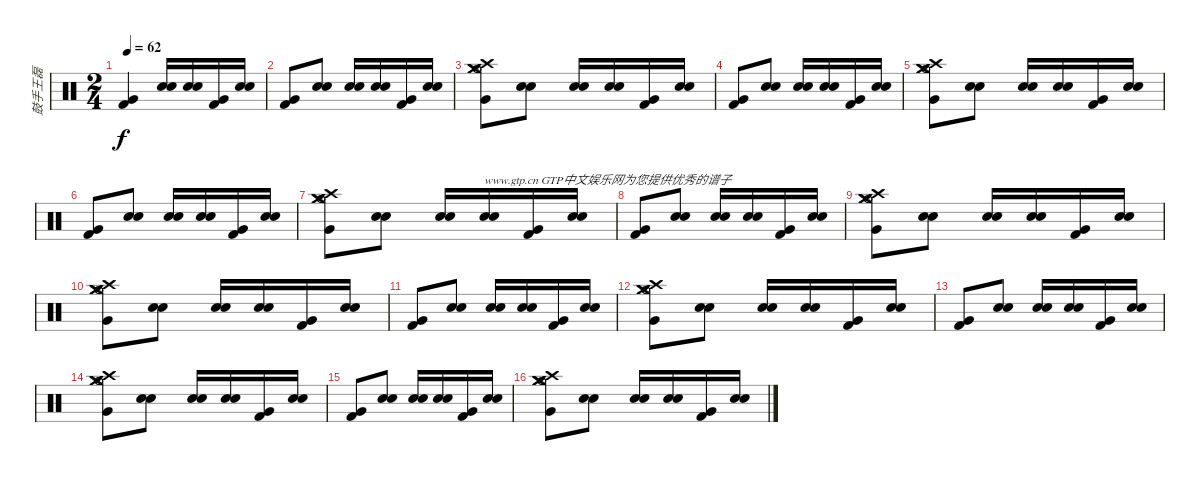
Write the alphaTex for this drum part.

\track ("鼓手王磊" "鼓手王磊") {instrument percussion}
\staff {score}
\articulation defaults
\ts (2 4)
\tempo 62
\clef neutral
\ks c
("Very Low Tom (hit)" "Kick (hit) 2").4{dy f} ("Electric Snare (hit)" "Electric Snare (hit)").16 ("Electric Snare (hit)" "Electric Snare (hit)").16 ("Very Low Tom (hit)" "Kick (hit) 2").16 ("Electric Snare (hit)" "Electric Snare (hit)").16 |
("Very Low Tom (hit)" "Kick (hit) 2").8 ("Electric Snare (hit)" "Electric Snare (hit)").8 ("Electric Snare (hit)" "Electric Snare (hit)").16 ("Electric Snare (hit)" "Electric Snare (hit)").16 ("Very Low Tom (hit)" "Kick (hit) 2").16 ("Electric Snare (hit)" "Electric Snare (hit)").16 |
("Crash medium (hit)" "Crash medium (hit)" "Very Low Tom (hit)" "Crash high (hit)" "Hi-Hat (open)" "Hi-Hat (open)").8 ("Electric Snare (hit)" "Electric Snare (hit)").8 ("Electric Snare (hit)" "Electric Snare (hit)").16 ("Electric Snare (hit)" "Electric Snare (hit)").16 ("Very Low Tom (hit)" "Kick (hit) 2").16 ("Electric Snare (hit)" "Electric Snare (hit)").16 |
("Very Low Tom (hit)" "Kick (hit) 2").8 ("Electric Snare (hit)" "Electric Snare (hit)").8 ("Electric Snare (hit)" "Electric Snare (hit)").16 ("Electric Snare (hit)" "Electric Snare (hit)").16 ("Very Low Tom (hit)" "Kick (hit) 2").16 ("Electric Snare (hit)" "Electric Snare (hit)").16 |
("Crash medium (hit)" "Crash medium (hit)" "Very Low Tom (hit)" "Crash high (hit)" "Hi-Hat (open)" "Hi-Hat (open)").8 ("Electric Snare (hit)" "Electric Snare (hit)").8 ("Electric Snare (hit)" "Electric Snare (hit)").16 ("Electric Snare (hit)" "Electric Snare (hit)").16 ("Very Low Tom (hit)" "Kick (hit) 2").16 ("Electric Snare (hit)" "Electric Snare (hit)").16 |
("Very Low Tom (hit)" "Kick (hit) 2").8 ("Electric Snare (hit)" "Electric Snare (hit)").8 ("Electric Snare (hit)" "Electric Snare (hit)").16 ("Electric Snare (hit)" "Electric Snare (hit)").16 ("Very Low Tom (hit)" "Kick (hit) 2").16 ("Electric Snare (hit)" "Electric Snare (hit)").16 |
("Crash medium (hit)" "Crash medium (hit)" "Very Low Tom (hit)" "Crash high (hit)" "Hi-Hat (open)" "Hi-Hat (open)").8 ("Electric Snare (hit)" "Electric Snare (hit)").8 ("Electric Snare (hit)" "Electric Snare (hit)").16 ("Electric Snare (hit)" "Electric Snare (hit)").16{txt "www.gtp.cn GTP中文娱乐网为您提供优秀的谱子"} ("Very Low Tom (hit)" "Kick (hit) 2").16 ("Electric Snare (hit)" "Electric Snare (hit)").16 |
("Very Low Tom (hit)" "Kick (hit) 2").8 ("Electric Snare (hit)" "Electric Snare (hit)").8 ("Electric Snare (hit)" "Electric Snare (hit)").16 ("Electric Snare (hit)" "Electric Snare (hit)").16 ("Very Low Tom (hit)" "Kick (hit) 2").16 ("Electric Snare (hit)" "Electric Snare (hit)").16 |
("Crash medium (hit)" "Crash medium (hit)" "Very Low Tom (hit)" "Crash high (hit)" "Hi-Hat (open)" "Hi-Hat (open)").8 ("Electric Snare (hit)" "Electric Snare (hit)").8 ("Electric Snare (hit)" "Electric Snare (hit)").16 ("Electric Snare (hit)" "Electric Snare (hit)").16 ("Very Low Tom (hit)" "Kick (hit) 2").16 ("Electric Snare (hit)" "Electric Snare (hit)").16 |
("Crash medium (hit)" "Crash medium (hit)" "Very Low Tom (hit)" "Crash high (hit)" "Hi-Hat (open)" "Hi-Hat (open)").8 ("Electric Snare (hit)" "Electric Snare (hit)").8 ("Electric Snare (hit)" "Electric Snare (hit)").16 ("Electric Snare (hit)" "Electric Snare (hit)").16 ("Very Low Tom (hit)" "Kick (hit) 2").16 ("Electric Snare (hit)" "Electric Snare (hit)").16 |
("Very Low Tom (hit)" "Kick (hit) 2").8 ("Electric Snare (hit)" "Electric Snare (hit)").8 ("Electric Snare (hit)" "Electric Snare (hit)").16 ("Electric Snare (hit)" "Electric Snare (hit)").16 ("Very Low Tom (hit)" "Kick (hit) 2").16 ("Electric Snare (hit)" "Electric Snare (hit)").16 |
("Crash medium (hit)" "Crash medium (hit)" "Very Low Tom (hit)" "Crash high (hit)" "Hi-Hat (open)" "Hi-Hat (open)").8 ("Electric Snare (hit)" "Electric Snare (hit)").8 ("Electric Snare (hit)" "Electric Snare (hit)").16 ("Electric Snare (hit)" "Electric Snare (hit)").16 ("Very Low Tom (hit)" "Kick (hit) 2").16 ("Electric Snare (hit)" "Electric Snare (hit)").16 |
("Very Low Tom (hit)" "Kick (hit) 2").8 ("Electric Snare (hit)" "Electric Snare (hit)").8 ("Electric Snare (hit)" "Electric Snare (hit)").16 ("Electric Snare (hit)" "Electric Snare (hit)").16 ("Very Low Tom (hit)" "Kick (hit) 2").16 ("Electric Snare (hit)" "Electric Snare (hit)").16 |
("Crash medium (hit)" "Crash medium (hit)" "Very Low Tom (hit)" "Crash high (hit)" "Hi-Hat (open)" "Hi-Hat (open)").8 ("Electric Snare (hit)" "Electric Snare (hit)").8 ("Electric Snare (hit)" "Electric Snare (hit)").16 ("Electric Snare (hit)" "Electric Snare (hit)").16 ("Very Low Tom (hit)" "Kick (hit) 2").16 ("Electric Snare (hit)" "Electric Snare (hit)").16 |
("Very Low Tom (hit)" "Kick (hit) 2").8 ("Electric Snare (hit)" "Electric Snare (hit)").8 ("Electric Snare (hit)" "Electric Snare (hit)").16 ("Electric Snare (hit)" "Electric Snare (hit)").16 ("Very Low Tom (hit)" "Kick (hit) 2").16 ("Electric Snare (hit)" "Electric Snare (hit)").16 |
("Crash medium (hit)" "Crash medium (hit)" "Very Low Tom (hit)" "Crash high (hit)" "Hi-Hat (open)" "Hi-Hat (open)").8 ("Electric Snare (hit)" "Electric Snare (hit)").8 ("Electric Snare (hit)" "Electric Snare (hit)").16 ("Electric Snare (hit)" "Electric Snare (hit)").16 ("Very Low Tom (hit)" "Kick (hit) 2").16 ("Electric Snare (hit)" "Electric Snare (hit)").16
